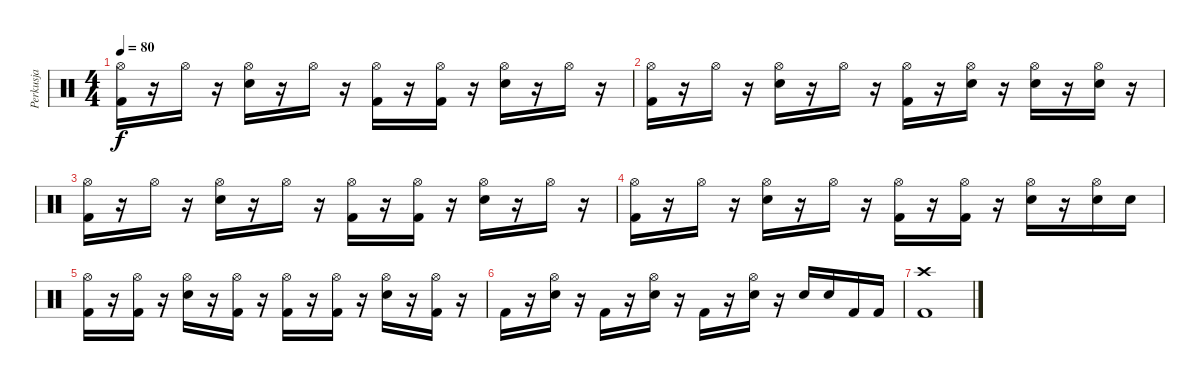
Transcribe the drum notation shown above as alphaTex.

\track ("Perkusja" "Perkusja") {instrument percussion}
\staff {score}
\articulation defaults
\ts (4 4)
\tempo 80
\clef neutral
\ks c
("Hi-Hat (open)" "Kick (hit) 2").16{dy f} r.16 "Hi-Hat (open)".16 r.16 ("Hi-Hat (open)" "Snare (hit) 2").16 r.16 "Hi-Hat (open)".16 r.16 ("Hi-Hat (open)" "Kick (hit) 2").16 r.16 ("Hi-Hat (open)" "Kick (hit) 2").16 r.16 ("Hi-Hat (open)" "Snare (hit) 2").16 r.16 "Hi-Hat (open)".16 r.16 |
("Hi-Hat (open)" "Kick (hit) 2").16 r.16 "Hi-Hat (open)".16 r.16 ("Hi-Hat (open)" "Snare (hit) 2").16 r.16 "Hi-Hat (open)".16 r.16 ("Hi-Hat (open)" "Kick (hit) 2").16 r.16 ("Hi-Hat (open)" "Snare (hit) 2").16 r.16 ("Hi-Hat (open)" "Snare (hit) 2").16 r.16 ("Hi-Hat (open)" "Snare (hit) 2").16 r.16 |
("Hi-Hat (open)" "Kick (hit) 2").16 r.16 "Hi-Hat (open)".16 r.16 ("Hi-Hat (open)" "Snare (hit) 2").16 r.16 "Hi-Hat (open)".16 r.16 ("Hi-Hat (open)" "Kick (hit) 2").16 r.16 ("Hi-Hat (open)" "Kick (hit) 2").16 r.16 ("Hi-Hat (open)" "Snare (hit) 2").16 r.16 "Hi-Hat (open)".16 r.16 |
("Hi-Hat (open)" "Kick (hit) 2").16 r.16 "Hi-Hat (open)".16 r.16 ("Hi-Hat (open)" "Snare (hit) 2").16 r.16 "Hi-Hat (open)".16 r.16 ("Hi-Hat (open)" "Kick (hit) 2").16 r.16 ("Hi-Hat (open)" "Kick (hit) 2").16 r.16 ("Hi-Hat (open)" "Snare (hit) 2").16 r.16 ("Hi-Hat (open)" "Snare (hit) 2").16 "Snare (hit) 2".16 |
("Hi-Hat (open)" "Kick (hit) 2").16 r.16 ("Hi-Hat (open)" "Kick (hit) 2").16 r.16 ("Hi-Hat (open)" "Snare (hit) 2").16 r.16 ("Hi-Hat (open)" "Kick (hit) 2").16 r.16 ("Hi-Hat (open)" "Kick (hit) 2").16 r.16 ("Hi-Hat (open)" "Kick (hit) 2").16 r.16 ("Hi-Hat (open)" "Snare (hit) 2").16 r.16 ("Hi-Hat (open)" "Kick (hit) 2").16 r.16 |
"Kick (hit) 2".16 r.16 ("Hi-Hat (open)" "Snare (hit) 2").16 r.16 "Kick (hit) 2".16 r.16 ("Hi-Hat (open)" "Snare (hit) 2").16 r.16 "Kick (hit) 2".16 r.16 ("Hi-Hat (open)" "Snare (hit) 2").16 r.16 "Snare (hit) 2".16 "Snare (hit) 2".16 "Kick (hit) 2".16 "Kick (hit) 2".16 |
("Kick (hit) 2" "Crash high (hit)").1
